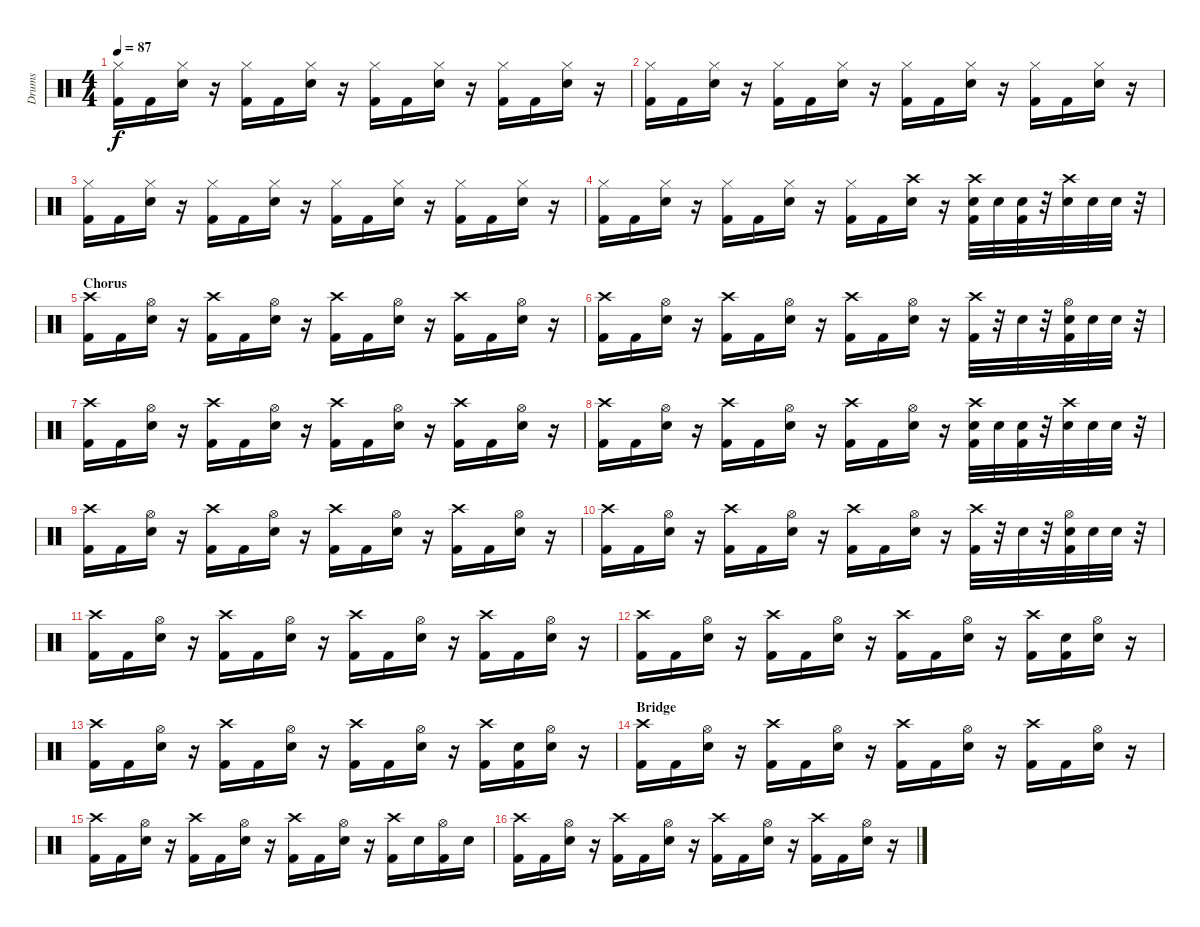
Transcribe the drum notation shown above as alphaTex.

\track ("Drums" "Drums") {instrument percussion}
\staff {score}
\articulation defaults
\ts (4 4)
\tempo 87
\clef neutral
\ks c
("Hi-Hat (closed)" "Kick (hit) 2").16{dy f} "Kick (hit) 2".16 ("Hi-Hat (closed)" "Electric Snare (hit)").16 r.16 ("Hi-Hat (closed)" "Kick (hit) 2").16 "Kick (hit) 2".16 ("Hi-Hat (closed)" "Electric Snare (hit)").16 r.16 ("Hi-Hat (closed)" "Kick (hit) 2").16 "Kick (hit) 2".16 ("Hi-Hat (closed)" "Electric Snare (hit)").16 r.16 ("Hi-Hat (closed)" "Kick (hit) 2").16 "Kick (hit) 2".16 ("Hi-Hat (closed)" "Electric Snare (hit)").16 r.16 |
("Hi-Hat (closed)" "Kick (hit) 2").16 "Kick (hit) 2".16 ("Hi-Hat (closed)" "Electric Snare (hit)").16 r.16 ("Hi-Hat (closed)" "Kick (hit) 2").16 "Kick (hit) 2".16 ("Hi-Hat (closed)" "Electric Snare (hit)").16 r.16 ("Hi-Hat (closed)" "Kick (hit) 2").16 "Kick (hit) 2".16 ("Hi-Hat (closed)" "Electric Snare (hit)").16 r.16 ("Hi-Hat (closed)" "Kick (hit) 2").16 "Kick (hit) 2".16 ("Hi-Hat (closed)" "Electric Snare (hit)").16 r.16 |
("Hi-Hat (closed)" "Kick (hit) 2").16 "Kick (hit) 2".16 ("Hi-Hat (closed)" "Electric Snare (hit)").16 r.16 ("Hi-Hat (closed)" "Kick (hit) 2").16 "Kick (hit) 2".16 ("Hi-Hat (closed)" "Electric Snare (hit)").16 r.16 ("Hi-Hat (closed)" "Kick (hit) 2").16 "Kick (hit) 2".16 ("Hi-Hat (closed)" "Electric Snare (hit)").16 r.16 ("Hi-Hat (closed)" "Kick (hit) 2").16 "Kick (hit) 2".16 ("Hi-Hat (closed)" "Electric Snare (hit)").16 r.16 |
("Hi-Hat (closed)" "Kick (hit) 2").16 "Kick (hit) 2".16 ("Hi-Hat (closed)" "Electric Snare (hit)").16 r.16 ("Hi-Hat (closed)" "Kick (hit) 2").16 "Kick (hit) 2".16 ("Hi-Hat (closed)" "Electric Snare (hit)").16 r.16 ("Hi-Hat (closed)" "Kick (hit) 2").16 "Kick (hit) 2".16 ("Crash high (hit)" "Electric Snare (hit)").16 r.16 ("Crash high (hit)" "Electric Snare (hit)" "Kick (hit) 2").32 "Electric Snare (hit)".32 ("Electric Snare (hit)" "Kick (hit) 2").32 r.32 ("Crash high (hit)" "Electric Snare (hit)").32 "Electric Snare (hit)".32 "Electric Snare (hit)".32 r.32 |
\section ("" "Chorus")
("Crash high (hit)" "Kick (hit) 2").16 "Kick (hit) 2".16 ("Hi-Hat (open)" "Electric Snare (hit)").16 r.16 ("Crash high (hit)" "Kick (hit) 2").16 "Kick (hit) 2".16 ("Hi-Hat (open)" "Electric Snare (hit)").16 r.16 ("Crash high (hit)" "Kick (hit) 2").16 "Kick (hit) 2".16 ("Hi-Hat (open)" "Electric Snare (hit)").16 r.16 ("Crash high (hit)" "Kick (hit) 2").16 "Kick (hit) 2".16 ("Hi-Hat (open)" "Electric Snare (hit)").16 r.16 |
("Crash high (hit)" "Kick (hit) 2").16 "Kick (hit) 2".16 ("Hi-Hat (open)" "Electric Snare (hit)").16 r.16 ("Crash high (hit)" "Kick (hit) 2").16 "Kick (hit) 2".16 ("Hi-Hat (open)" "Electric Snare (hit)").16 r.16 ("Crash high (hit)" "Kick (hit) 2").16 "Kick (hit) 2".16 ("Hi-Hat (open)" "Electric Snare (hit)").16 r.16 ("Crash high (hit)" "Kick (hit) 2").32 r.32 "Electric Snare (hit)".32 r.32 ("Hi-Hat (open)" "Electric Snare (hit)" "Kick (hit) 2").32 "Electric Snare (hit)".32 "Electric Snare (hit)".32 r.32 |
("Crash high (hit)" "Kick (hit) 2").16 "Kick (hit) 2".16 ("Hi-Hat (open)" "Electric Snare (hit)").16 r.16 ("Crash high (hit)" "Kick (hit) 2").16 "Kick (hit) 2".16 ("Hi-Hat (open)" "Electric Snare (hit)").16 r.16 ("Crash high (hit)" "Kick (hit) 2").16 "Kick (hit) 2".16 ("Hi-Hat (open)" "Electric Snare (hit)").16 r.16 ("Crash high (hit)" "Kick (hit) 2").16 "Kick (hit) 2".16 ("Hi-Hat (open)" "Electric Snare (hit)").16 r.16 |
("Crash high (hit)" "Kick (hit) 2").16 "Kick (hit) 2".16 ("Hi-Hat (open)" "Electric Snare (hit)").16 r.16 ("Crash high (hit)" "Kick (hit) 2").16 "Kick (hit) 2".16 ("Hi-Hat (open)" "Electric Snare (hit)").16 r.16 ("Crash high (hit)" "Kick (hit) 2").16 "Kick (hit) 2".16 ("Hi-Hat (open)" "Electric Snare (hit)").16 r.16 ("Crash high (hit)" "Electric Snare (hit)" "Kick (hit) 2").32 "Electric Snare (hit)".32 ("Electric Snare (hit)" "Kick (hit) 2").32 r.32 ("Crash high (hit)" "Electric Snare (hit)").32 "Electric Snare (hit)".32 "Electric Snare (hit)".32 r.32 |
("Crash high (hit)" "Kick (hit) 2").16 "Kick (hit) 2".16 ("Hi-Hat (open)" "Electric Snare (hit)").16 r.16 ("Crash high (hit)" "Kick (hit) 2").16 "Kick (hit) 2".16 ("Hi-Hat (open)" "Electric Snare (hit)").16 r.16 ("Crash high (hit)" "Kick (hit) 2").16 "Kick (hit) 2".16 ("Hi-Hat (open)" "Electric Snare (hit)").16 r.16 ("Crash high (hit)" "Kick (hit) 2").16 "Kick (hit) 2".16 ("Hi-Hat (open)" "Electric Snare (hit)").16 r.16 |
("Crash high (hit)" "Kick (hit) 2").16 "Kick (hit) 2".16 ("Hi-Hat (open)" "Electric Snare (hit)").16 r.16 ("Crash high (hit)" "Kick (hit) 2").16 "Kick (hit) 2".16 ("Hi-Hat (open)" "Electric Snare (hit)").16 r.16 ("Crash high (hit)" "Kick (hit) 2").16 "Kick (hit) 2".16 ("Hi-Hat (open)" "Electric Snare (hit)").16 r.16 ("Crash high (hit)" "Kick (hit) 2").32 r.32 "Electric Snare (hit)".32 r.32 ("Hi-Hat (open)" "Electric Snare (hit)" "Kick (hit) 2").32 "Electric Snare (hit)".32 "Electric Snare (hit)".32 r.32 |
("Crash high (hit)" "Kick (hit) 2").16 "Kick (hit) 2".16 ("Hi-Hat (open)" "Electric Snare (hit)").16 r.16 ("Crash high (hit)" "Kick (hit) 2").16 "Kick (hit) 2".16 ("Hi-Hat (open)" "Electric Snare (hit)").16 r.16 ("Crash high (hit)" "Kick (hit) 2").16 "Kick (hit) 2".16 ("Hi-Hat (open)" "Electric Snare (hit)").16 r.16 ("Crash high (hit)" "Kick (hit) 2").16 "Kick (hit) 2".16 ("Hi-Hat (open)" "Electric Snare (hit)").16 r.16 |
("Crash high (hit)" "Kick (hit) 2").16 "Kick (hit) 2".16 ("Hi-Hat (open)" "Electric Snare (hit)").16 r.16 ("Crash high (hit)" "Kick (hit) 2").16 "Kick (hit) 2".16 ("Hi-Hat (open)" "Electric Snare (hit)").16 r.16 ("Crash high (hit)" "Kick (hit) 2").16 "Kick (hit) 2".16 ("Hi-Hat (open)" "Electric Snare (hit)").16 r.16 ("Crash high (hit)" "Kick (hit) 2").16 ("Electric Snare (hit)" "Kick (hit) 2").16 ("Hi-Hat (open)" "Electric Snare (hit)").16 r.16 |
("Crash high (hit)" "Kick (hit) 2").16 "Kick (hit) 2".16 ("Hi-Hat (open)" "Electric Snare (hit)").16 r.16 ("Crash high (hit)" "Kick (hit) 2").16 "Kick (hit) 2".16 ("Hi-Hat (open)" "Electric Snare (hit)").16 r.16 ("Crash high (hit)" "Kick (hit) 2").16 "Kick (hit) 2".16 ("Hi-Hat (open)" "Electric Snare (hit)").16 r.16 ("Crash high (hit)" "Kick (hit) 2").16 ("Electric Snare (hit)" "Kick (hit) 2").16 ("Hi-Hat (open)" "Electric Snare (hit)").16 r.16 |
\section ("" "Bridge")
("Crash high (hit)" "Kick (hit) 2").16 "Kick (hit) 2".16 ("Hi-Hat (open)" "Electric Snare (hit)").16 r.16 ("Crash high (hit)" "Kick (hit) 2").16 "Kick (hit) 2".16 ("Hi-Hat (open)" "Electric Snare (hit)").16 r.16 ("Crash high (hit)" "Kick (hit) 2").16 "Kick (hit) 2".16 ("Hi-Hat (open)" "Electric Snare (hit)").16 r.16 ("Crash high (hit)" "Kick (hit) 2").16 "Kick (hit) 2".16 ("Hi-Hat (open)" "Electric Snare (hit)").16 r.16 |
("Crash high (hit)" "Kick (hit) 2").16 "Kick (hit) 2".16 ("Hi-Hat (open)" "Electric Snare (hit)").16 r.16 ("Crash high (hit)" "Kick (hit) 2").16 "Kick (hit) 2".16 ("Hi-Hat (open)" "Electric Snare (hit)").16 r.16 ("Crash high (hit)" "Kick (hit) 2").16 "Kick (hit) 2".16 ("Hi-Hat (open)" "Electric Snare (hit)").16 r.16 ("Crash high (hit)" "Kick (hit) 2").16 "Electric Snare (hit)".16 ("Hi-Hat (open)" "Kick (hit) 2").16 "Electric Snare (hit)".16 |
("Crash high (hit)" "Kick (hit) 2").16 "Kick (hit) 2".16 ("Hi-Hat (open)" "Electric Snare (hit)").16 r.16 ("Crash high (hit)" "Kick (hit) 2").16 "Kick (hit) 2".16 ("Hi-Hat (open)" "Electric Snare (hit)").16 r.16 ("Crash high (hit)" "Kick (hit) 2").16 "Kick (hit) 2".16 ("Hi-Hat (open)" "Electric Snare (hit)").16 r.16 ("Crash high (hit)" "Kick (hit) 2").16 "Kick (hit) 2".16 ("Hi-Hat (open)" "Electric Snare (hit)").16 r.16
